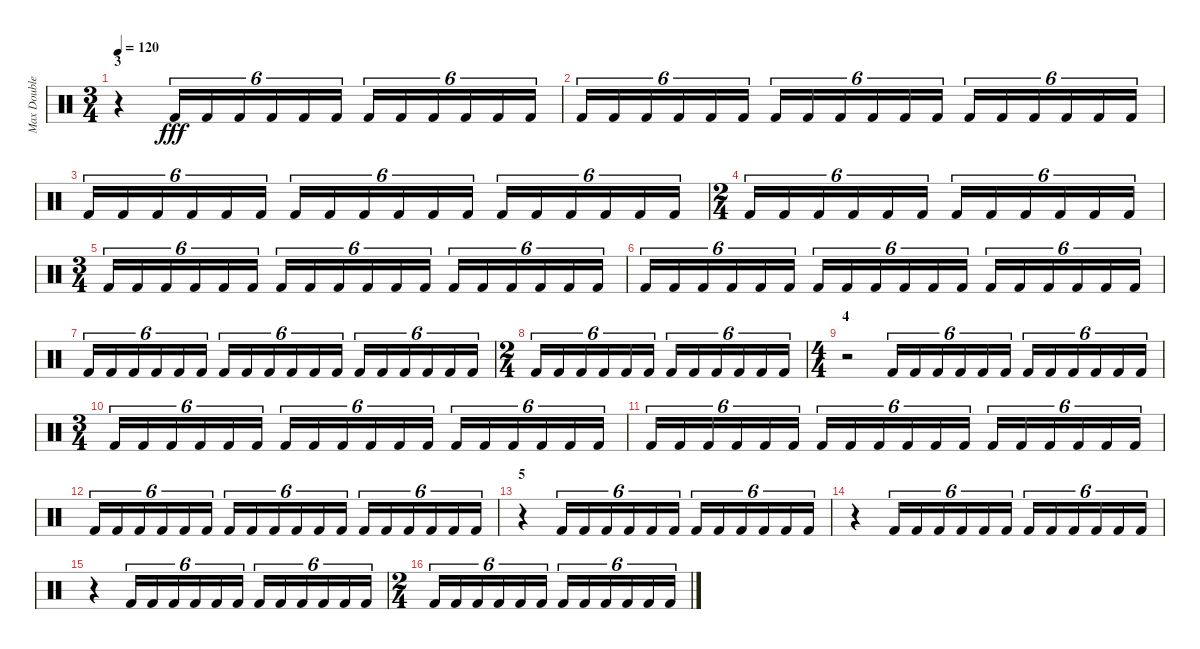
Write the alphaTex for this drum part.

\track ("Max Double Pedal" "Max Double") {instrument percussion}
\staff {score}
\articulation defaults
\ts (3 4)
\section ("" "3")
\tempo 120
\clef neutral
\ks c
r.4{dy fff} "Kick (hit) 2".16{tu (6 4)} "Kick (hit) 2".16{tu (6 4)} "Kick (hit) 2".16{tu (6 4)} "Kick (hit) 2".16{tu (6 4)} "Kick (hit) 2".16{tu (6 4)} "Kick (hit) 2".16{tu (6 4)} "Kick (hit) 2".16{tu (6 4)} "Kick (hit) 2".16{tu (6 4)} "Kick (hit) 2".16{tu (6 4)} "Kick (hit) 2".16{tu (6 4)} "Kick (hit) 2".16{tu (6 4)} "Kick (hit) 2".16{tu (6 4)} |
"Kick (hit) 2".16{tu (6 4)} "Kick (hit) 2".16{tu (6 4)} "Kick (hit) 2".16{tu (6 4)} "Kick (hit) 2".16{tu (6 4)} "Kick (hit) 2".16{tu (6 4)} "Kick (hit) 2".16{tu (6 4)} "Kick (hit) 2".16{tu (6 4)} "Kick (hit) 2".16{tu (6 4)} "Kick (hit) 2".16{tu (6 4)} "Kick (hit) 2".16{tu (6 4)} "Kick (hit) 2".16{tu (6 4)} "Kick (hit) 2".16{tu (6 4)} "Kick (hit) 2".16{tu (6 4)} "Kick (hit) 2".16{tu (6 4)} "Kick (hit) 2".16{tu (6 4)} "Kick (hit) 2".16{tu (6 4)} "Kick (hit) 2".16{tu (6 4)} "Kick (hit) 2".16{tu (6 4)} |
"Kick (hit) 2".16{tu (6 4)} "Kick (hit) 2".16{tu (6 4)} "Kick (hit) 2".16{tu (6 4)} "Kick (hit) 2".16{tu (6 4)} "Kick (hit) 2".16{tu (6 4)} "Kick (hit) 2".16{tu (6 4)} "Kick (hit) 2".16{tu (6 4)} "Kick (hit) 2".16{tu (6 4)} "Kick (hit) 2".16{tu (6 4)} "Kick (hit) 2".16{tu (6 4)} "Kick (hit) 2".16{tu (6 4)} "Kick (hit) 2".16{tu (6 4)} "Kick (hit) 2".16{tu (6 4)} "Kick (hit) 2".16{tu (6 4)} "Kick (hit) 2".16{tu (6 4)} "Kick (hit) 2".16{tu (6 4)} "Kick (hit) 2".16{tu (6 4)} "Kick (hit) 2".16{tu (6 4)} |
\ts (2 4)
"Kick (hit) 2".16{tu (6 4)} "Kick (hit) 2".16{tu (6 4)} "Kick (hit) 2".16{tu (6 4)} "Kick (hit) 2".16{tu (6 4)} "Kick (hit) 2".16{tu (6 4)} "Kick (hit) 2".16{tu (6 4)} "Kick (hit) 2".16{tu (6 4)} "Kick (hit) 2".16{tu (6 4)} "Kick (hit) 2".16{tu (6 4)} "Kick (hit) 2".16{tu (6 4)} "Kick (hit) 2".16{tu (6 4)} "Kick (hit) 2".16{tu (6 4)} |
\ts (3 4)
"Kick (hit) 2".16{tu (6 4)} "Kick (hit) 2".16{tu (6 4)} "Kick (hit) 2".16{tu (6 4)} "Kick (hit) 2".16{tu (6 4)} "Kick (hit) 2".16{tu (6 4)} "Kick (hit) 2".16{tu (6 4)} "Kick (hit) 2".16{tu (6 4)} "Kick (hit) 2".16{tu (6 4)} "Kick (hit) 2".16{tu (6 4)} "Kick (hit) 2".16{tu (6 4)} "Kick (hit) 2".16{tu (6 4)} "Kick (hit) 2".16{tu (6 4)} "Kick (hit) 2".16{tu (6 4)} "Kick (hit) 2".16{tu (6 4)} "Kick (hit) 2".16{tu (6 4)} "Kick (hit) 2".16{tu (6 4)} "Kick (hit) 2".16{tu (6 4)} "Kick (hit) 2".16{tu (6 4)} |
"Kick (hit) 2".16{tu (6 4)} "Kick (hit) 2".16{tu (6 4)} "Kick (hit) 2".16{tu (6 4)} "Kick (hit) 2".16{tu (6 4)} "Kick (hit) 2".16{tu (6 4)} "Kick (hit) 2".16{tu (6 4)} "Kick (hit) 2".16{tu (6 4)} "Kick (hit) 2".16{tu (6 4)} "Kick (hit) 2".16{tu (6 4)} "Kick (hit) 2".16{tu (6 4)} "Kick (hit) 2".16{tu (6 4)} "Kick (hit) 2".16{tu (6 4)} "Kick (hit) 2".16{tu (6 4)} "Kick (hit) 2".16{tu (6 4)} "Kick (hit) 2".16{tu (6 4)} "Kick (hit) 2".16{tu (6 4)} "Kick (hit) 2".16{tu (6 4)} "Kick (hit) 2".16{tu (6 4)} |
"Kick (hit) 2".16{tu (6 4)} "Kick (hit) 2".16{tu (6 4)} "Kick (hit) 2".16{tu (6 4)} "Kick (hit) 2".16{tu (6 4)} "Kick (hit) 2".16{tu (6 4)} "Kick (hit) 2".16{tu (6 4)} "Kick (hit) 2".16{tu (6 4)} "Kick (hit) 2".16{tu (6 4)} "Kick (hit) 2".16{tu (6 4)} "Kick (hit) 2".16{tu (6 4)} "Kick (hit) 2".16{tu (6 4)} "Kick (hit) 2".16{tu (6 4)} "Kick (hit) 2".16{tu (6 4)} "Kick (hit) 2".16{tu (6 4)} "Kick (hit) 2".16{tu (6 4)} "Kick (hit) 2".16{tu (6 4)} "Kick (hit) 2".16{tu (6 4)} "Kick (hit) 2".16{tu (6 4)} |
\ts (2 4)
"Kick (hit) 2".16{tu (6 4)} "Kick (hit) 2".16{tu (6 4)} "Kick (hit) 2".16{tu (6 4)} "Kick (hit) 2".16{tu (6 4)} "Kick (hit) 2".16{tu (6 4)} "Kick (hit) 2".16{tu (6 4)} "Kick (hit) 2".16{tu (6 4)} "Kick (hit) 2".16{tu (6 4)} "Kick (hit) 2".16{tu (6 4)} "Kick (hit) 2".16{tu (6 4)} "Kick (hit) 2".16{tu (6 4)} "Kick (hit) 2".16{tu (6 4)} |
\ts (4 4)
\section ("" "4")
r.2 "Kick (hit) 2".16{tu (6 4)} "Kick (hit) 2".16{tu (6 4)} "Kick (hit) 2".16{tu (6 4)} "Kick (hit) 2".16{tu (6 4)} "Kick (hit) 2".16{tu (6 4)} "Kick (hit) 2".16{tu (6 4)} "Kick (hit) 2".16{tu (6 4)} "Kick (hit) 2".16{tu (6 4)} "Kick (hit) 2".16{tu (6 4)} "Kick (hit) 2".16{tu (6 4)} "Kick (hit) 2".16{tu (6 4)} "Kick (hit) 2".16{tu (6 4)} |
\ts (3 4)
"Kick (hit) 2".16{tu (6 4)} "Kick (hit) 2".16{tu (6 4)} "Kick (hit) 2".16{tu (6 4)} "Kick (hit) 2".16{tu (6 4)} "Kick (hit) 2".16{tu (6 4)} "Kick (hit) 2".16{tu (6 4)} "Kick (hit) 2".16{tu (6 4)} "Kick (hit) 2".16{tu (6 4)} "Kick (hit) 2".16{tu (6 4)} "Kick (hit) 2".16{tu (6 4)} "Kick (hit) 2".16{tu (6 4)} "Kick (hit) 2".16{tu (6 4)} "Kick (hit) 2".16{tu (6 4)} "Kick (hit) 2".16{tu (6 4)} "Kick (hit) 2".16{tu (6 4)} "Kick (hit) 2".16{tu (6 4)} "Kick (hit) 2".16{tu (6 4)} "Kick (hit) 2".16{tu (6 4)} |
"Kick (hit) 2".16{tu (6 4)} "Kick (hit) 2".16{tu (6 4)} "Kick (hit) 2".16{tu (6 4)} "Kick (hit) 2".16{tu (6 4)} "Kick (hit) 2".16{tu (6 4)} "Kick (hit) 2".16{tu (6 4)} "Kick (hit) 2".16{tu (6 4)} "Kick (hit) 2".16{tu (6 4)} "Kick (hit) 2".16{tu (6 4)} "Kick (hit) 2".16{tu (6 4)} "Kick (hit) 2".16{tu (6 4)} "Kick (hit) 2".16{tu (6 4)} "Kick (hit) 2".16{tu (6 4)} "Kick (hit) 2".16{tu (6 4)} "Kick (hit) 2".16{tu (6 4)} "Kick (hit) 2".16{tu (6 4)} "Kick (hit) 2".16{tu (6 4)} "Kick (hit) 2".16{tu (6 4)} |
"Kick (hit) 2".16{tu (6 4)} "Kick (hit) 2".16{tu (6 4)} "Kick (hit) 2".16{tu (6 4)} "Kick (hit) 2".16{tu (6 4)} "Kick (hit) 2".16{tu (6 4)} "Kick (hit) 2".16{tu (6 4)} "Kick (hit) 2".16{tu (6 4)} "Kick (hit) 2".16{tu (6 4)} "Kick (hit) 2".16{tu (6 4)} "Kick (hit) 2".16{tu (6 4)} "Kick (hit) 2".16{tu (6 4)} "Kick (hit) 2".16{tu (6 4)} "Kick (hit) 2".16{tu (6 4)} "Kick (hit) 2".16{tu (6 4)} "Kick (hit) 2".16{tu (6 4)} "Kick (hit) 2".16{tu (6 4)} "Kick (hit) 2".16{tu (6 4)} "Kick (hit) 2".16{tu (6 4)} |
\section ("" "5")
r.4 "Kick (hit) 2".16{tu (6 4)} "Kick (hit) 2".16{tu (6 4)} "Kick (hit) 2".16{tu (6 4)} "Kick (hit) 2".16{tu (6 4)} "Kick (hit) 2".16{tu (6 4)} "Kick (hit) 2".16{tu (6 4)} "Kick (hit) 2".16{tu (6 4)} "Kick (hit) 2".16{tu (6 4)} "Kick (hit) 2".16{tu (6 4)} "Kick (hit) 2".16{tu (6 4)} "Kick (hit) 2".16{tu (6 4)} "Kick (hit) 2".16{tu (6 4)} |
r.4 "Kick (hit) 2".16{tu (6 4)} "Kick (hit) 2".16{tu (6 4)} "Kick (hit) 2".16{tu (6 4)} "Kick (hit) 2".16{tu (6 4)} "Kick (hit) 2".16{tu (6 4)} "Kick (hit) 2".16{tu (6 4)} "Kick (hit) 2".16{tu (6 4)} "Kick (hit) 2".16{tu (6 4)} "Kick (hit) 2".16{tu (6 4)} "Kick (hit) 2".16{tu (6 4)} "Kick (hit) 2".16{tu (6 4)} "Kick (hit) 2".16{tu (6 4)} |
r.4 "Kick (hit) 2".16{tu (6 4)} "Kick (hit) 2".16{tu (6 4)} "Kick (hit) 2".16{tu (6 4)} "Kick (hit) 2".16{tu (6 4)} "Kick (hit) 2".16{tu (6 4)} "Kick (hit) 2".16{tu (6 4)} "Kick (hit) 2".16{tu (6 4)} "Kick (hit) 2".16{tu (6 4)} "Kick (hit) 2".16{tu (6 4)} "Kick (hit) 2".16{tu (6 4)} "Kick (hit) 2".16{tu (6 4)} "Kick (hit) 2".16{tu (6 4)} |
\ts (2 4)
"Kick (hit) 2".16{tu (6 4)} "Kick (hit) 2".16{tu (6 4)} "Kick (hit) 2".16{tu (6 4)} "Kick (hit) 2".16{tu (6 4)} "Kick (hit) 2".16{tu (6 4)} "Kick (hit) 2".16{tu (6 4)} "Kick (hit) 2".16{tu (6 4)} "Kick (hit) 2".16{tu (6 4)} "Kick (hit) 2".16{tu (6 4)} "Kick (hit) 2".16{tu (6 4)} "Kick (hit) 2".16{tu (6 4)} "Kick (hit) 2".16{tu (6 4)}
